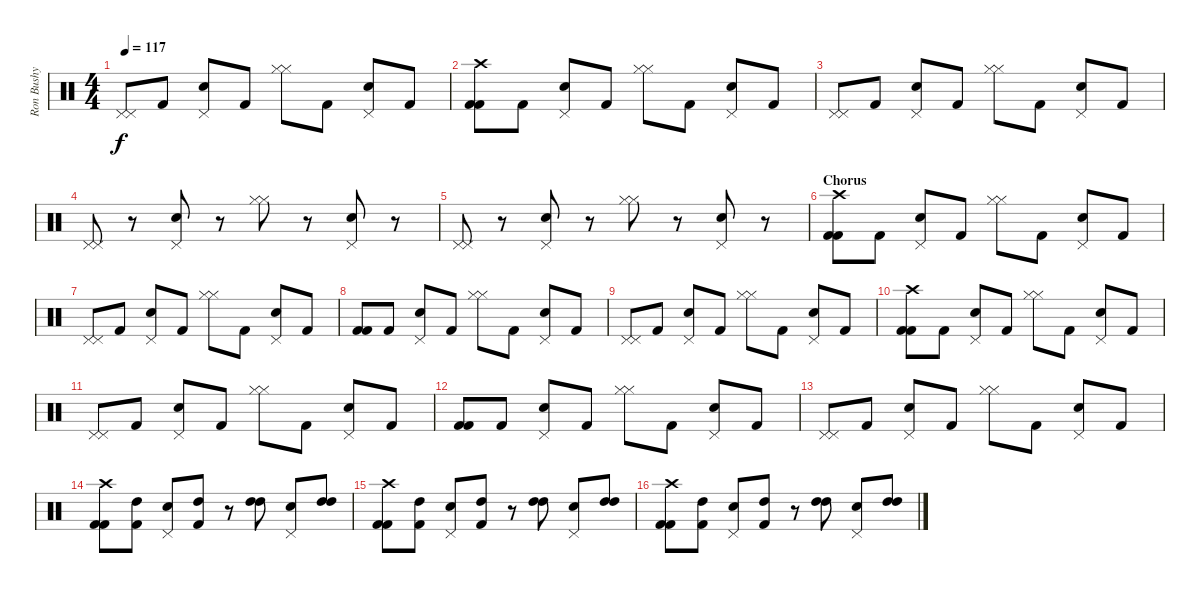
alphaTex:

\track ("Ron Bushy" "Ron Bushy") {instrument percussion}
\staff {score}
\articulation defaults
\ts (4 4)
\tempo 117
\clef neutral
\ks c
("Pedal Hi-Hat (hit)" "Pedal Hi-Hat (hit)").8{dy f} "Kick (hit) 2".8 ("Pedal Hi-Hat (hit)" "Snare (hit) 2").8 "Kick (hit) 2".8 ("Hi-Hat (closed)" "Hi-Hat (closed)").8 "Kick (hit) 2".8 ("Pedal Hi-Hat (hit)" "Snare (hit) 2").8 "Kick (hit) 2".8 |
("Crash high (hit)" "Kick (hit) 2" "Kick (hit) 2").8 "Kick (hit) 2".8 ("Pedal Hi-Hat (hit)" "Snare (hit) 2").8 "Kick (hit) 2".8 ("Hi-Hat (closed)" "Hi-Hat (closed)").8 "Kick (hit) 2".8 ("Pedal Hi-Hat (hit)" "Snare (hit) 2").8 "Kick (hit) 2".8 |
("Pedal Hi-Hat (hit)" "Pedal Hi-Hat (hit)").8 "Kick (hit) 2".8 ("Pedal Hi-Hat (hit)" "Snare (hit) 2").8 "Kick (hit) 2".8 ("Hi-Hat (closed)" "Hi-Hat (closed)").8 "Kick (hit) 2".8 ("Pedal Hi-Hat (hit)" "Snare (hit) 2").8 "Kick (hit) 2".8 |
("Pedal Hi-Hat (hit)" "Pedal Hi-Hat (hit)").8 r.8 ("Pedal Hi-Hat (hit)" "Snare (hit) 2").8 r.8 ("Hi-Hat (closed)" "Hi-Hat (closed)").8 r.8 ("Pedal Hi-Hat (hit)" "Snare (hit) 2").8 r.8 |
("Pedal Hi-Hat (hit)" "Pedal Hi-Hat (hit)").8 r.8 ("Pedal Hi-Hat (hit)" "Snare (hit) 2").8 r.8 ("Hi-Hat (closed)" "Hi-Hat (closed)").8 r.8 ("Pedal Hi-Hat (hit)" "Snare (hit) 2").8 r.8 |
\section ("" "Chorus")
("Crash high (hit)" "Kick (hit) 2" "Kick (hit) 2").8 "Kick (hit) 2".8 ("Pedal Hi-Hat (hit)" "Snare (hit) 2").8 "Kick (hit) 2".8 ("Hi-Hat (closed)" "Hi-Hat (closed)").8 "Kick (hit) 2".8 ("Pedal Hi-Hat (hit)" "Snare (hit) 2").8 "Kick (hit) 2".8 |
("Pedal Hi-Hat (hit)" "Pedal Hi-Hat (hit)").8 "Kick (hit) 2".8 ("Pedal Hi-Hat (hit)" "Snare (hit) 2").8 "Kick (hit) 2".8 ("Hi-Hat (closed)" "Hi-Hat (closed)").8 "Kick (hit) 2".8 ("Pedal Hi-Hat (hit)" "Snare (hit) 2").8 "Kick (hit) 2".8 |
("Kick (hit) 2" "Kick (hit) 2").8 "Kick (hit) 2".8 ("Pedal Hi-Hat (hit)" "Snare (hit) 2").8 "Kick (hit) 2".8 ("Hi-Hat (closed)" "Hi-Hat (closed)").8 "Kick (hit) 2".8 ("Pedal Hi-Hat (hit)" "Snare (hit) 2").8 "Kick (hit) 2".8 |
("Pedal Hi-Hat (hit)" "Pedal Hi-Hat (hit)").8 "Kick (hit) 2".8 ("Pedal Hi-Hat (hit)" "Snare (hit) 2").8 "Kick (hit) 2".8 ("Hi-Hat (closed)" "Hi-Hat (closed)").8 "Kick (hit) 2".8 ("Pedal Hi-Hat (hit)" "Snare (hit) 2").8 "Kick (hit) 2".8 |
("Crash high (hit)" "Kick (hit) 2" "Kick (hit) 2").8 "Kick (hit) 2".8 ("Pedal Hi-Hat (hit)" "Snare (hit) 2").8 "Kick (hit) 2".8 ("Hi-Hat (closed)" "Hi-Hat (closed)").8 "Kick (hit) 2".8 ("Pedal Hi-Hat (hit)" "Snare (hit) 2").8 "Kick (hit) 2".8 |
("Pedal Hi-Hat (hit)" "Pedal Hi-Hat (hit)").8 "Kick (hit) 2".8 ("Pedal Hi-Hat (hit)" "Snare (hit) 2").8 "Kick (hit) 2".8 ("Hi-Hat (closed)" "Hi-Hat (closed)").8 "Kick (hit) 2".8 ("Pedal Hi-Hat (hit)" "Snare (hit) 2").8 "Kick (hit) 2".8 |
("Kick (hit) 2" "Kick (hit) 2").8 "Kick (hit) 2".8 ("Pedal Hi-Hat (hit)" "Snare (hit) 2").8 "Kick (hit) 2".8 ("Hi-Hat (closed)" "Hi-Hat (closed)").8 "Kick (hit) 2".8 ("Pedal Hi-Hat (hit)" "Snare (hit) 2").8 "Kick (hit) 2".8 |
("Pedal Hi-Hat (hit)" "Pedal Hi-Hat (hit)").8 "Kick (hit) 2".8 ("Pedal Hi-Hat (hit)" "Snare (hit) 2").8 "Kick (hit) 2".8 ("Hi-Hat (closed)" "Hi-Hat (closed)").8 "Kick (hit) 2".8 ("Pedal Hi-Hat (hit)" "Snare (hit) 2").8 "Kick (hit) 2".8 |
("Crash high (hit)" "Kick (hit) 2" "Kick (hit) 2").8 ("High Tom (hit)" "Kick (hit) 2").8 ("Pedal Hi-Hat (hit)" "Snare (hit) 2").8 ("Kick (hit) 2" "High Tom (hit)").8 r.8 ("High Tom (hit)" "High Tom (hit)").8 ("Pedal Hi-Hat (hit)" "Snare (hit) 2").8 ("High Tom (hit)" "High Tom (hit)").8 |
("Crash high (hit)" "Kick (hit) 2" "Kick (hit) 2").8 ("High Tom (hit)" "Kick (hit) 2").8 ("Pedal Hi-Hat (hit)" "Snare (hit) 2").8 ("Kick (hit) 2" "High Tom (hit)").8 r.8 ("High Tom (hit)" "High Tom (hit)").8 ("Pedal Hi-Hat (hit)" "Snare (hit) 2").8 ("High Tom (hit)" "High Tom (hit)").8 |
("Crash high (hit)" "Kick (hit) 2" "Kick (hit) 2").8 ("High Tom (hit)" "Kick (hit) 2").8 ("Pedal Hi-Hat (hit)" "Snare (hit) 2").8 ("Kick (hit) 2" "High Tom (hit)").8 r.8 ("High Tom (hit)" "High Tom (hit)").8 ("Pedal Hi-Hat (hit)" "Snare (hit) 2").8 ("High Tom (hit)" "High Tom (hit)").8
